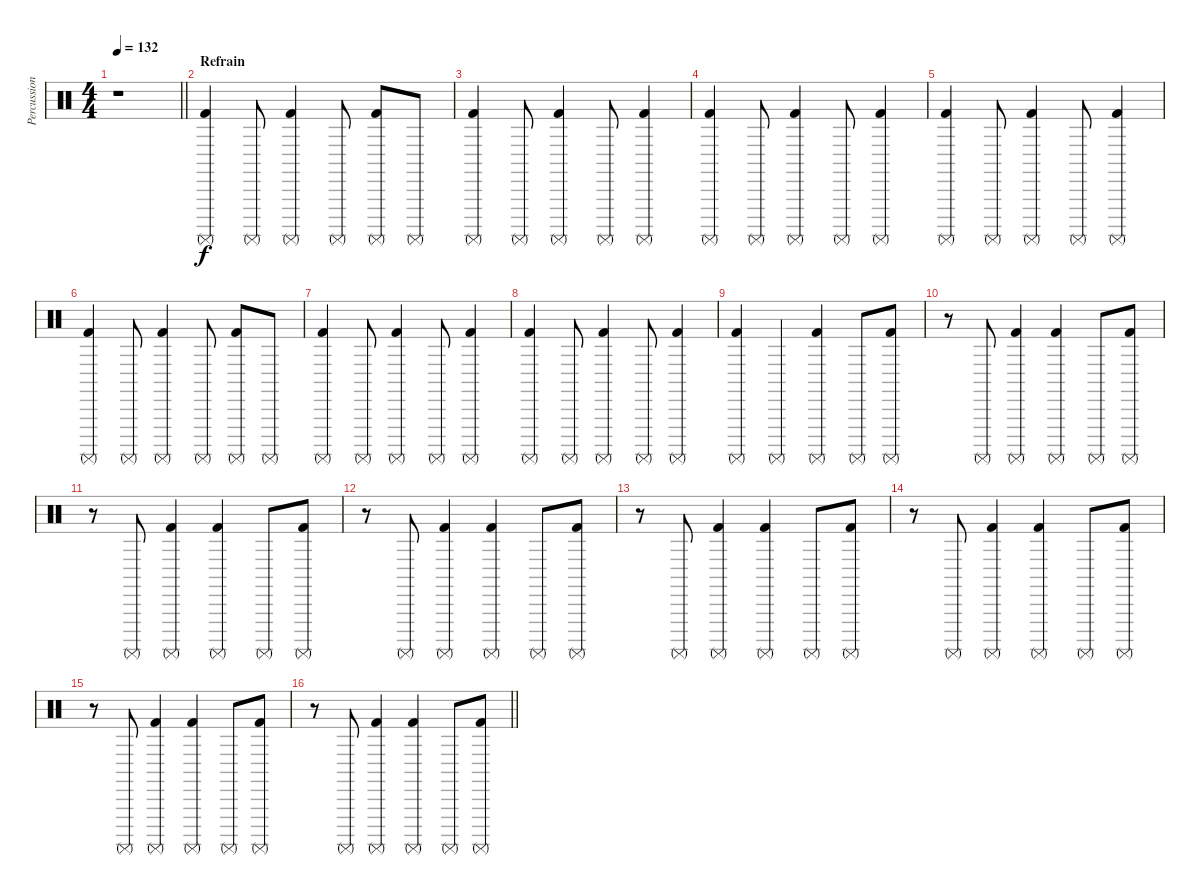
\track ("Percussion" "Percussion") {instrument percussion}
\staff {score}
\articulation defaults
\ts (4 4)
\tempo 132
\clef neutral
\barLineRight lightlight
\ks c
r.1{dy f} |
\section ("" "Refrain")
("Surdo (mute)" "Kick (hit) 2").4 "Surdo (mute)".8 ("Surdo (mute)" "Kick (hit) 2").4 "Surdo (mute)".8 ("Surdo (mute)" "Kick (hit) 2").8 "Surdo (mute)".8 |
("Surdo (mute)" "Kick (hit) 2").4 "Surdo (mute)".8 ("Surdo (mute)" "Kick (hit) 2").4 "Surdo (mute)".8 ("Surdo (mute)" "Kick (hit) 2").4 |
("Surdo (mute)" "Kick (hit) 2").4 "Surdo (mute)".8 ("Surdo (mute)" "Kick (hit) 2").4 "Surdo (mute)".8 ("Surdo (mute)" "Kick (hit) 2").4 |
("Surdo (mute)" "Kick (hit) 2").4 "Surdo (mute)".8 ("Surdo (mute)" "Kick (hit) 2").4 "Surdo (mute)".8 ("Surdo (mute)" "Kick (hit) 2").4 |
("Surdo (mute)" "Kick (hit) 2").4 "Surdo (mute)".8 ("Surdo (mute)" "Kick (hit) 2").4 "Surdo (mute)".8 ("Surdo (mute)" "Kick (hit) 2").8 "Surdo (mute)".8 |
("Surdo (mute)" "Kick (hit) 2").4 "Surdo (mute)".8 ("Surdo (mute)" "Kick (hit) 2").4 "Surdo (mute)".8 ("Surdo (mute)" "Kick (hit) 2").4 |
("Surdo (mute)" "Kick (hit) 2").4 "Surdo (mute)".8 ("Surdo (mute)" "Kick (hit) 2").4 "Surdo (mute)".8 ("Surdo (mute)" "Kick (hit) 2").4 |
("Surdo (mute)" "Kick (hit) 2").4 "Surdo (mute)".4 ("Surdo (mute)" "Kick (hit) 2").4 "Surdo (mute)".8 ("Surdo (mute)" "Kick (hit) 2").8 |
r.8 "Surdo (mute)".8 ("Surdo (mute)" "Kick (hit) 2").4 ("Surdo (mute)" "Kick (hit) 2").4 "Surdo (mute)".8 ("Surdo (mute)" "Kick (hit) 2").8 |
r.8 "Surdo (mute)".8 ("Surdo (mute)" "Kick (hit) 2").4 ("Surdo (mute)" "Kick (hit) 2").4 "Surdo (mute)".8 ("Surdo (mute)" "Kick (hit) 2").8 |
r.8 "Surdo (mute)".8 ("Surdo (mute)" "Kick (hit) 2").4 ("Surdo (mute)" "Kick (hit) 2").4 "Surdo (mute)".8 ("Surdo (mute)" "Kick (hit) 2").8 |
r.8 "Surdo (mute)".8 ("Surdo (mute)" "Kick (hit) 2").4 ("Surdo (mute)" "Kick (hit) 2").4 "Surdo (mute)".8 ("Surdo (mute)" "Kick (hit) 2").8 |
r.8 "Surdo (mute)".8 ("Surdo (mute)" "Kick (hit) 2").4 ("Surdo (mute)" "Kick (hit) 2").4 "Surdo (mute)".8 ("Surdo (mute)" "Kick (hit) 2").8 |
r.8 "Surdo (mute)".8 ("Surdo (mute)" "Kick (hit) 2").4 ("Surdo (mute)" "Kick (hit) 2").4 "Surdo (mute)".8 ("Surdo (mute)" "Kick (hit) 2").8 |
\barLineRight lightlight
r.8 "Surdo (mute)".8 ("Surdo (mute)" "Kick (hit) 2").4 ("Surdo (mute)" "Kick (hit) 2").4 "Surdo (mute)".8 ("Surdo (mute)" "Kick (hit) 2").8
